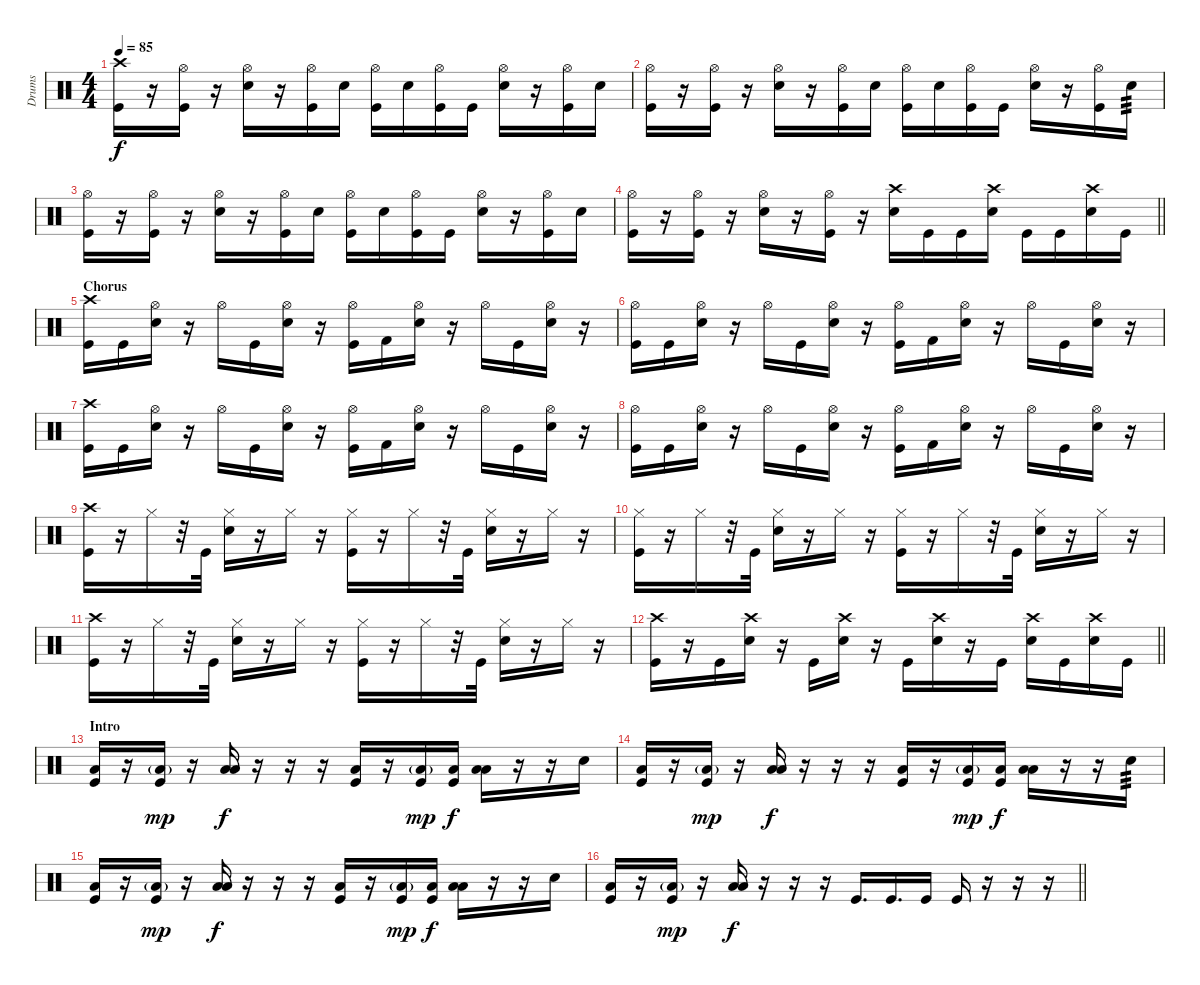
\track ("Drums" "Drums") {instrument percussion}
\staff {score}
\articulation defaults
\ts (4 4)
\tempo 85
\clef neutral
\ks c
("Crash high (hit)" "Kick (hit)").16{dy f} r.16 ("Hi-Hat (open)" "Kick (hit)").16 r.16 ("Hi-Hat (open)" "Snare (hit) 2").16 r.16 ("Hi-Hat (open)" "Kick (hit)").16 "Snare (hit) 2".16 ("Hi-Hat (open)" "Kick (hit)").16 "Snare (hit) 2".16 ("Hi-Hat (open)" "Kick (hit)").16 "Kick (hit)".16 ("Hi-Hat (open)" "Snare (hit) 2").16 r.16 ("Hi-Hat (open)" "Kick (hit)").16 "Snare (hit) 2".16 |
("Hi-Hat (open)" "Kick (hit)").16 r.16 ("Hi-Hat (open)" "Kick (hit)").16 r.16 ("Hi-Hat (open)" "Snare (hit) 2").16 r.16 ("Hi-Hat (open)" "Kick (hit)").16 "Snare (hit) 2".16 ("Hi-Hat (open)" "Kick (hit)").16 "Snare (hit) 2".16 ("Hi-Hat (open)" "Kick (hit)").16 "Kick (hit)".16 ("Hi-Hat (open)" "Snare (hit) 2").16 r.16 ("Hi-Hat (open)" "Kick (hit)").16 "Snare (hit) 2".16{tp 3} |
("Hi-Hat (open)" "Kick (hit)").16 r.16 ("Hi-Hat (open)" "Kick (hit)").16 r.16 ("Hi-Hat (open)" "Snare (hit) 2").16 r.16 ("Hi-Hat (open)" "Kick (hit)").16 "Snare (hit) 2".16 ("Hi-Hat (open)" "Kick (hit)").16 "Snare (hit) 2".16 ("Hi-Hat (open)" "Kick (hit)").16 "Kick (hit)".16 ("Hi-Hat (open)" "Snare (hit) 2").16 r.16 ("Hi-Hat (open)" "Kick (hit)").16 "Snare (hit) 2".16 |
\barLineRight lightlight
("Hi-Hat (open)" "Kick (hit)").16 r.16 ("Hi-Hat (open)" "Kick (hit)").16 r.16 ("Hi-Hat (open)" "Snare (hit) 2").16 r.16 ("Hi-Hat (open)" "Kick (hit)").16 r.16 ("Crash high (hit)" "Snare (hit) 2").16 "Kick (hit)".16 "Kick (hit)".16 ("Crash high (hit)" "Snare (hit) 2").16 "Kick (hit)".16 "Kick (hit)".16 ("Crash high (hit)" "Snare (hit) 2").16 "Kick (hit)".16 |
\section ("" "Chorus")
("Crash high (hit)" "Kick (hit)").16 "Kick (hit)".16 ("Hi-Hat (open)" "Snare (hit) 2").16 r.16 "Hi-Hat (open)".16 "Kick (hit)".16 ("Hi-Hat (open)" "Snare (hit) 2").16 r.16 ("Hi-Hat (open)" "Kick (hit)").16 "Kick (hit) 2".16 ("Hi-Hat (open)" "Snare (hit) 2").16 r.16 "Hi-Hat (open)".16 "Kick (hit)".16 ("Hi-Hat (open)" "Snare (hit) 2").16 r.16 |
("Hi-Hat (open)" "Kick (hit)").16 "Kick (hit)".16 ("Hi-Hat (open)" "Snare (hit) 2").16 r.16 "Hi-Hat (open)".16 "Kick (hit)".16 ("Hi-Hat (open)" "Snare (hit) 2").16 r.16 ("Hi-Hat (open)" "Kick (hit)").16 "Kick (hit) 2".16 ("Hi-Hat (open)" "Snare (hit) 2").16 r.16 "Hi-Hat (open)".16 "Kick (hit)".16 ("Hi-Hat (open)" "Snare (hit) 2").16 r.16 |
("Crash high (hit)" "Kick (hit)").16 "Kick (hit)".16 ("Hi-Hat (open)" "Snare (hit) 2").16 r.16 "Hi-Hat (open)".16 "Kick (hit)".16 ("Hi-Hat (open)" "Snare (hit) 2").16 r.16 ("Hi-Hat (open)" "Kick (hit)").16 "Kick (hit) 2".16 ("Hi-Hat (open)" "Snare (hit) 2").16 r.16 "Hi-Hat (open)".16 "Kick (hit)".16 ("Hi-Hat (open)" "Snare (hit) 2").16 r.16 |
("Hi-Hat (open)" "Kick (hit)").16 "Kick (hit)".16 ("Hi-Hat (open)" "Snare (hit) 2").16 r.16 "Hi-Hat (open)".16 "Kick (hit)".16 ("Hi-Hat (open)" "Snare (hit) 2").16 r.16 ("Hi-Hat (open)" "Kick (hit)").16 "Kick (hit) 2".16 ("Hi-Hat (open)" "Snare (hit) 2").16 r.16 "Hi-Hat (open)".16 "Kick (hit)".16 ("Hi-Hat (open)" "Snare (hit) 2").16 r.16 |
("Crash high (hit)" "Kick (hit)").16 r.16 "Hi-Hat (closed)".16 r.32 "Kick (hit)".32 ("Hi-Hat (closed)" "Snare (hit) 2").16 r.16 "Hi-Hat (closed)".16 r.16 ("Hi-Hat (closed)" "Kick (hit)").16 r.16 "Hi-Hat (closed)".16 r.32 "Kick (hit)".32 ("Hi-Hat (closed)" "Snare (hit) 2").16 r.16 "Hi-Hat (closed)".16 r.16 |
("Hi-Hat (closed)" "Kick (hit)").16 r.16 "Hi-Hat (closed)".16 r.32 "Kick (hit)".32 ("Hi-Hat (closed)" "Snare (hit) 2").16 r.16 "Hi-Hat (closed)".16 r.16 ("Hi-Hat (closed)" "Kick (hit)").16 r.16 "Hi-Hat (closed)".16 r.32 "Kick (hit)".32 ("Hi-Hat (closed)" "Snare (hit) 2").16 r.16 "Hi-Hat (closed)".16 r.16 |
("Crash high (hit)" "Kick (hit)").16 r.16 "Hi-Hat (closed)".16 r.32 "Kick (hit)".32 ("Hi-Hat (closed)" "Snare (hit) 2").16 r.16 "Hi-Hat (closed)".16 r.16 ("Hi-Hat (closed)" "Kick (hit)").16 r.16 "Hi-Hat (closed)".16 r.32 "Kick (hit)".32 ("Hi-Hat (closed)" "Snare (hit) 2").16 r.16 "Hi-Hat (closed)".16 r.16 |
\barLineRight lightlight
("Crash high (hit)" "Kick (hit)").16 r.16 "Kick (hit)".16 ("Crash high (hit)" "Snare (hit) 2").16 r.16 "Kick (hit)".16 ("Crash high (hit)" "Snare (hit) 2").16 r.16 "Kick (hit)".16 ("Crash high (hit)" "Snare (hit) 2").16 r.16 "Kick (hit)".16 ("Crash high (hit)" "Snare (hit) 2").16 "Kick (hit)".16 ("Crash high (hit)" "Snare (hit) 2").16 "Kick (hit)".16 |
\section ("" "Intro")
("Low Floor Tom (hit)" "Kick (hit)").16 r.16 ("Low Floor Tom (hit)"{g} "Kick (hit)").16{dy mp} r.16 ("Low Tom (hit)" "Low Floor Tom (hit)").16{dy f} r.16 r.16 r.16 ("Low Floor Tom (hit)" "Kick (hit)").16 r.16 ("Low Floor Tom (hit)"{g} "Kick (hit)").16{dy mp} ("Low Floor Tom (hit)" "Kick (hit)").16{dy f} ("Low Tom (hit)" "Low Floor Tom (hit)").16 r.16 r.16 "Snare (hit) 2".16 |
("Low Floor Tom (hit)" "Kick (hit)").16 r.16 ("Low Floor Tom (hit)"{g} "Kick (hit)").16{dy mp} r.16 ("Low Tom (hit)" "Low Floor Tom (hit)").16{dy f} r.16 r.16 r.16 ("Low Floor Tom (hit)" "Kick (hit)").16 r.16 ("Low Floor Tom (hit)"{g} "Kick (hit)").16{dy mp} ("Low Floor Tom (hit)" "Kick (hit)").16{dy f} ("Low Tom (hit)" "Low Floor Tom (hit)").16 r.16 r.16 "Snare (hit) 2".16{tp 3} |
("Low Floor Tom (hit)" "Kick (hit)").16 r.16 ("Low Floor Tom (hit)"{g} "Kick (hit)").16{dy mp} r.16 ("Low Tom (hit)" "Low Floor Tom (hit)").16{dy f} r.16 r.16 r.16 ("Low Floor Tom (hit)" "Kick (hit)").16 r.16 ("Low Floor Tom (hit)"{g} "Kick (hit)").16{dy mp} ("Low Floor Tom (hit)" "Kick (hit)").16{dy f} ("Low Tom (hit)" "Low Floor Tom (hit)").16 r.16 r.16 "Snare (hit) 2".16 |
\barLineRight lightlight
("Low Floor Tom (hit)" "Kick (hit)").16 r.16 ("Low Floor Tom (hit)"{g} "Kick (hit)").16{dy mp} r.16 ("Low Tom (hit)" "Low Floor Tom (hit)").16{dy f} r.16 r.16 r.16 "Kick (hit)".16{d} "Kick (hit)".16{d} "Kick (hit)".16 "Kick (hit)".16 r.16 r.16 r.16
